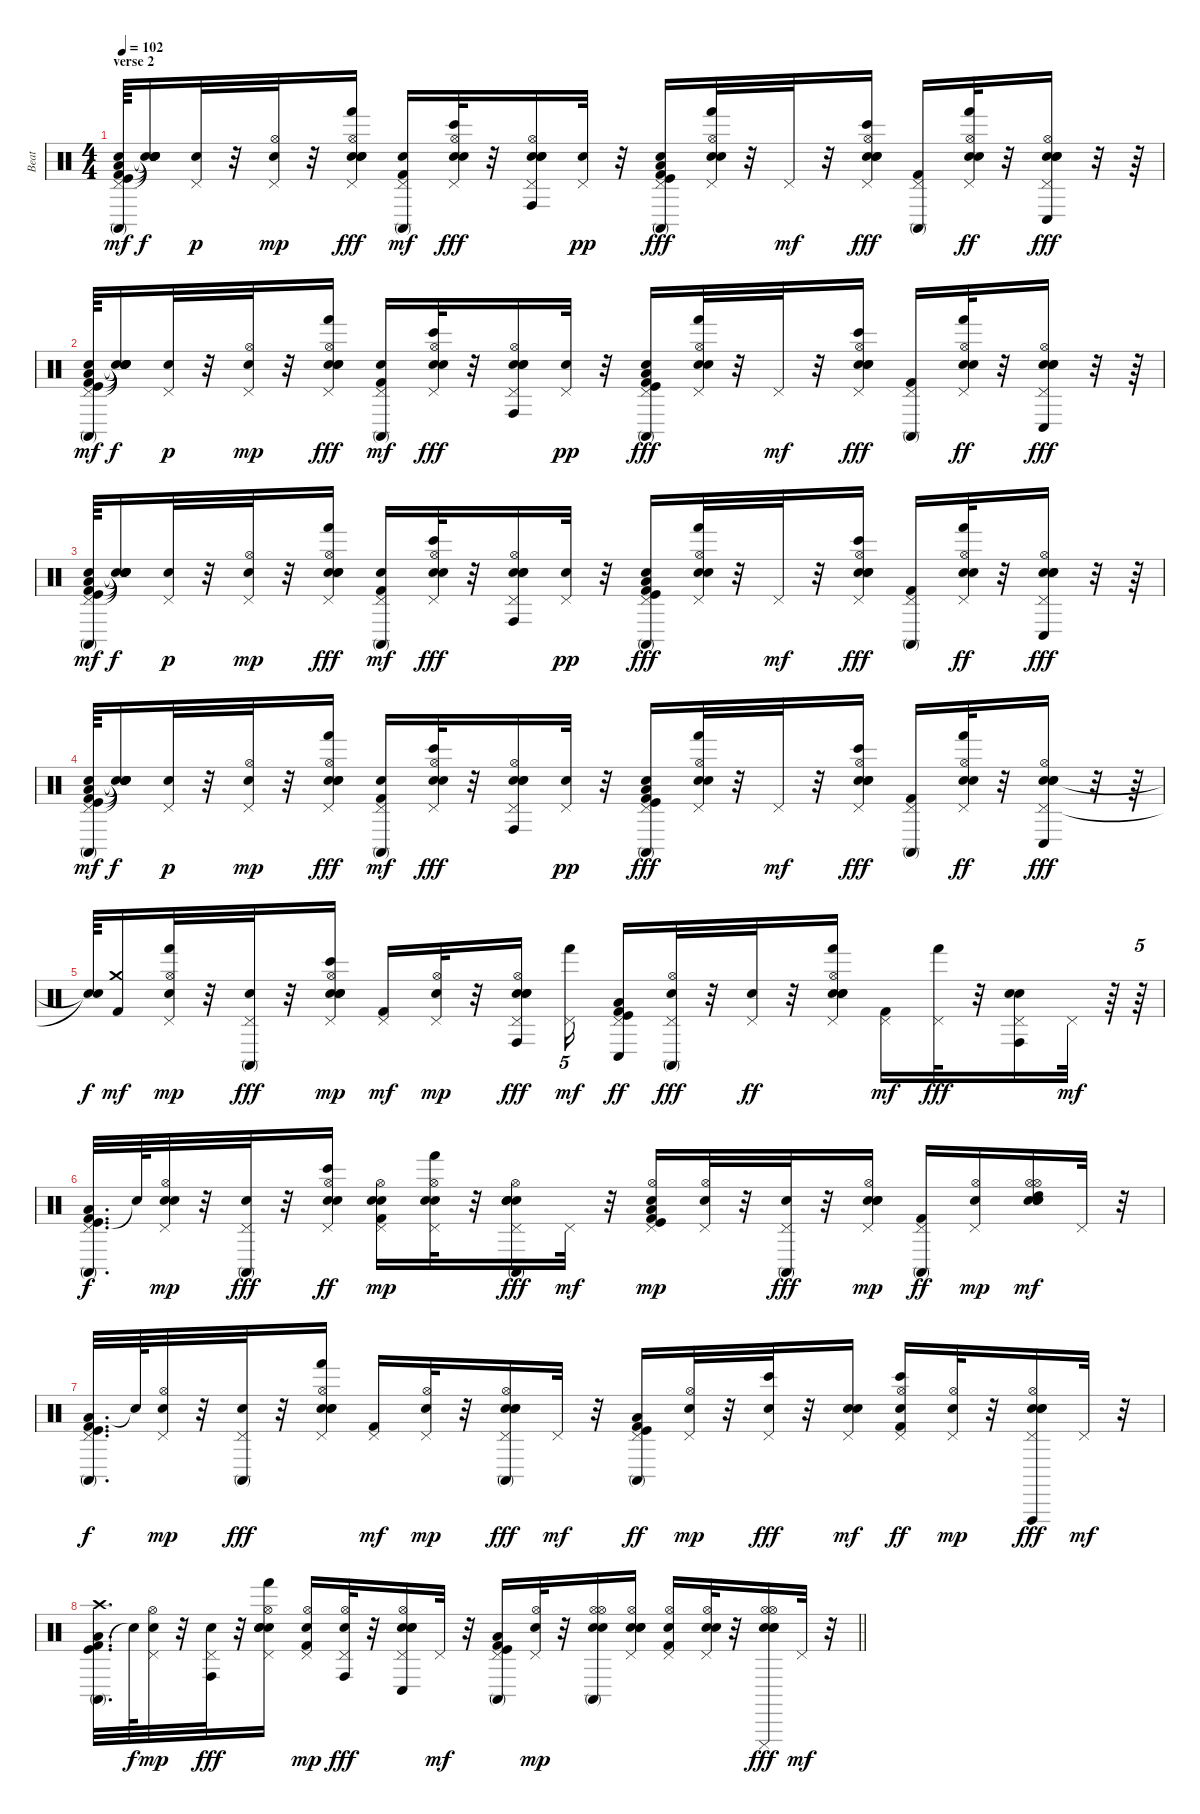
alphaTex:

\track ("Beat" "Beat") {instrument percussion}
\staff {score}
\articulation defaults
\ts (4 4)
\section ("" "verse 2")
\tempo 102
\clef neutral
\ks c
("Low Tom (hit)" "Kick (hit)" "Kick (hit) 2" "Pedal Hi-Hat (hit)" "Hand Clap (hit)" "Conga high (mute)").64{dy mf} ("Snare (hit)"{t} "Snare (hit)"{t} "Snare (hit)"{t} "Snare (hit)"{t} "Snare (hit)"{t}).16{dy f} ("Pedal Hi-Hat (hit)" "Hand Clap (hit)").32{dy p} r.32 ("Pedal Hi-Hat (hit)" "Hi-Hat (open)" "Metronome (bell)").32{dy mp} r.32 ("Electric Snare (hit)" "Pedal Hi-Hat (hit)" "Hand Clap (hit)" "Hi-Hat (open)" "Metronome (bell)" "Hand (hit)").16{dy fff} ("Kick (hit) 2" "Pedal Hi-Hat (hit)" "Hand Clap (hit)" "Conga high (mute)").16{dy mf} ("Pedal Hi-Hat (hit)" "Hand Clap (hit)" "Hi-Hat (open)" "Metronome (bell)" "Bongo High (hit)").32{dy fff} r.32 ("Electric Snare (hit)" "Pedal Hi-Hat (hit)" "Hand Clap (hit)" "Hi-Hat (open)" "Metronome (bell)" "Conga high (hit)").16 ("Pedal Hi-Hat (hit)" "Hand Clap (hit)").32{dy pp} r.32 ("Low Tom (hit)" "Kick (hit)" "Kick (hit) 2" "Pedal Hi-Hat (hit)" "Hand Clap (hit)" "Conga high (mute)").16{dy fff} ("Pedal Hi-Hat (hit)" "Hand Clap (hit)" "Hi-Hat (open)" "Metronome (bell)" "Hand (hit)").32 r.32 "Pedal Hi-Hat (hit)".32{dy mf} r.32 ("Electric Snare (hit)" "Pedal Hi-Hat (hit)" "Hand Clap (hit)" "Hi-Hat (open)" "Metronome (bell)" "Bongo High (hit)").16{dy fff} ("Kick (hit) 2" "Pedal Hi-Hat (hit)" "Conga high (mute)").16 ("Pedal Hi-Hat (hit)" "Hand Clap (hit)" "Hi-Hat (open)" "Metronome (bell)" "Hand (hit)").32{dy ff} r.32 ("Electric Snare (hit)" "Pedal Hi-Hat (hit)" "Hand Clap (hit)" "Hi-Hat (open)" "Metronome (bell)" "Conga low (hit)").16{dy fff} r.32 r.64 |
("Low Tom (hit)" "Kick (hit)" "Kick (hit) 2" "Pedal Hi-Hat (hit)" "Hand Clap (hit)" "Conga high (mute)").64{dy mf} ("Snare (hit)"{t} "Snare (hit)"{t} "Snare (hit)"{t} "Snare (hit)"{t} "Snare (hit)"{t}).16{dy f} ("Pedal Hi-Hat (hit)" "Hand Clap (hit)").32{dy p} r.32 ("Pedal Hi-Hat (hit)" "Hi-Hat (open)" "Metronome (bell)").32{dy mp} r.32 ("Electric Snare (hit)" "Pedal Hi-Hat (hit)" "Hand Clap (hit)" "Hi-Hat (open)" "Metronome (bell)" "Hand (hit)").16{dy fff} ("Kick (hit) 2" "Pedal Hi-Hat (hit)" "Hand Clap (hit)" "Conga high (mute)").16{dy mf} ("Pedal Hi-Hat (hit)" "Hand Clap (hit)" "Hi-Hat (open)" "Metronome (bell)" "Bongo High (hit)").32{dy fff} r.32 ("Electric Snare (hit)" "Pedal Hi-Hat (hit)" "Hand Clap (hit)" "Hi-Hat (open)" "Metronome (bell)" "Conga high (hit)").16 ("Pedal Hi-Hat (hit)" "Hand Clap (hit)").32{dy pp} r.32 ("Low Tom (hit)" "Kick (hit)" "Kick (hit) 2" "Pedal Hi-Hat (hit)" "Hand Clap (hit)" "Conga high (mute)").16{dy fff} ("Pedal Hi-Hat (hit)" "Hand Clap (hit)" "Hi-Hat (open)" "Metronome (bell)" "Hand (hit)").32 r.32 "Pedal Hi-Hat (hit)".32{dy mf} r.32 ("Electric Snare (hit)" "Pedal Hi-Hat (hit)" "Hand Clap (hit)" "Hi-Hat (open)" "Metronome (bell)" "Bongo High (hit)").16{dy fff} ("Kick (hit) 2" "Pedal Hi-Hat (hit)" "Conga high (mute)").16 ("Pedal Hi-Hat (hit)" "Hand Clap (hit)" "Hi-Hat (open)" "Metronome (bell)" "Hand (hit)").32{dy ff} r.32 ("Electric Snare (hit)" "Pedal Hi-Hat (hit)" "Hand Clap (hit)" "Hi-Hat (open)" "Metronome (bell)" "Conga low (hit)").16{dy fff} r.32 r.64 |
("Low Tom (hit)" "Kick (hit)" "Kick (hit) 2" "Pedal Hi-Hat (hit)" "Hand Clap (hit)" "Conga high (mute)").64{dy mf} ("Snare (hit)"{t} "Snare (hit)"{t} "Snare (hit)"{t} "Snare (hit)"{t} "Snare (hit)"{t}).16{dy f} ("Pedal Hi-Hat (hit)" "Hand Clap (hit)").32{dy p} r.32 ("Pedal Hi-Hat (hit)" "Hi-Hat (open)" "Metronome (bell)").32{dy mp} r.32 ("Electric Snare (hit)" "Pedal Hi-Hat (hit)" "Hand Clap (hit)" "Hi-Hat (open)" "Metronome (bell)" "Hand (hit)").16{dy fff} ("Kick (hit) 2" "Pedal Hi-Hat (hit)" "Hand Clap (hit)" "Conga high (mute)").16{dy mf} ("Pedal Hi-Hat (hit)" "Hand Clap (hit)" "Hi-Hat (open)" "Metronome (bell)" "Bongo High (hit)").32{dy fff} r.32 ("Electric Snare (hit)" "Pedal Hi-Hat (hit)" "Hand Clap (hit)" "Hi-Hat (open)" "Metronome (bell)" "Conga high (hit)").16 ("Pedal Hi-Hat (hit)" "Hand Clap (hit)").32{dy pp} r.32 ("Low Tom (hit)" "Kick (hit)" "Kick (hit) 2" "Pedal Hi-Hat (hit)" "Hand Clap (hit)" "Conga high (mute)").16{dy fff} ("Pedal Hi-Hat (hit)" "Hand Clap (hit)" "Hi-Hat (open)" "Metronome (bell)" "Hand (hit)").32 r.32 "Pedal Hi-Hat (hit)".32{dy mf} r.32 ("Electric Snare (hit)" "Pedal Hi-Hat (hit)" "Hand Clap (hit)" "Hi-Hat (open)" "Metronome (bell)" "Bongo High (hit)").16{dy fff} ("Kick (hit) 2" "Pedal Hi-Hat (hit)" "Conga high (mute)").16 ("Pedal Hi-Hat (hit)" "Hand Clap (hit)" "Hi-Hat (open)" "Metronome (bell)" "Hand (hit)").32{dy ff} r.32 ("Electric Snare (hit)" "Pedal Hi-Hat (hit)" "Hand Clap (hit)" "Hi-Hat (open)" "Metronome (bell)" "Conga low (hit)").16{dy fff} r.32 r.64 |
("Low Tom (hit)" "Kick (hit)" "Kick (hit) 2" "Pedal Hi-Hat (hit)" "Hand Clap (hit)" "Conga high (mute)").64{dy mf} ("Snare (hit)"{t} "Snare (hit)"{t} "Snare (hit)"{t} "Snare (hit)"{t} "Snare (hit)"{t}).16{dy f} ("Pedal Hi-Hat (hit)" "Hand Clap (hit)").32{dy p} r.32 ("Pedal Hi-Hat (hit)" "Hi-Hat (open)" "Metronome (bell)").32{dy mp} r.32 ("Electric Snare (hit)" "Pedal Hi-Hat (hit)" "Hand Clap (hit)" "Hi-Hat (open)" "Metronome (bell)" "Hand (hit)").16{dy fff} ("Kick (hit) 2" "Pedal Hi-Hat (hit)" "Hand Clap (hit)" "Conga high (mute)").16{dy mf} ("Pedal Hi-Hat (hit)" "Hand Clap (hit)" "Hi-Hat (open)" "Metronome (bell)" "Bongo High (hit)").32{dy fff} r.32 ("Electric Snare (hit)" "Pedal Hi-Hat (hit)" "Hand Clap (hit)" "Hi-Hat (open)" "Metronome (bell)" "Conga high (hit)").16 ("Pedal Hi-Hat (hit)" "Hand Clap (hit)").32{dy pp} r.32 ("Low Tom (hit)" "Kick (hit)" "Kick (hit) 2" "Pedal Hi-Hat (hit)" "Hand Clap (hit)" "Conga high (mute)").16{dy fff} ("Pedal Hi-Hat (hit)" "Hand Clap (hit)" "Hi-Hat (open)" "Metronome (bell)" "Hand (hit)").32 r.32 "Pedal Hi-Hat (hit)".32{dy mf} r.32 ("Electric Snare (hit)" "Pedal Hi-Hat (hit)" "Hand Clap (hit)" "Hi-Hat (open)" "Metronome (bell)" "Bongo High (hit)").16{dy fff} ("Kick (hit) 2" "Pedal Hi-Hat (hit)" "Conga high (mute)").16 ("Pedal Hi-Hat (hit)" "Hand Clap (hit)" "Hi-Hat (open)" "Metronome (bell)" "Hand (hit)").32{dy ff} r.32 ("Electric Snare (hit)" "Pedal Hi-Hat (hit)" "Hand Clap (hit)" "Hi-Hat (open)" "Metronome (bell)" "Conga low (hit)").16{dy fff} r.32 r.64 |
("Snare (hit)"{t} "Snare (hit)"{t}).64{dy f} ("Kick (hit) 2" "Crash medium (hit)").16{dy mf} ("Pedal Hi-Hat (hit)" "Hi-Hat (open)" "Metronome (bell)" "Hand (hit)").32{dy mp} r.32 ("Pedal Hi-Hat (hit)" "Hand Clap (hit)" "Conga high (mute)").32{dy fff} r.32 ("Electric Snare (hit)" "Pedal Hi-Hat (hit)" "Hand Clap (hit)" "Hi-Hat (open)" "Metronome (bell)" "Bongo High (hit)").16{dy mp} ("Kick (hit) 2" "Pedal Hi-Hat (hit)").16{dy mf} ("Pedal Hi-Hat (hit)" "Hi-Hat (open)" "Metronome (bell)").32{dy mp} r.32 ("Electric Snare (hit)" "Pedal Hi-Hat (hit)" "Hand Clap (hit)" "Hi-Hat (open)" "Metronome (bell)" "Conga high (hit)").16{dy fff} ("Pedal Hi-Hat (hit)" "Hand (hit)").16{tu (5 4) dy mf} ("Kick (hit)" "Low Tom (hit)" "Kick (hit) 2" "Pedal Hi-Hat (hit)" "Conga low (hit)").16{dy ff} ("Pedal Hi-Hat (hit)" "Hi-Hat (open)" "Metronome (bell)" "Conga high (mute)").32{dy fff} r.32 ("Pedal Hi-Hat (hit)" "Hand Clap (hit)").32{dy ff} r.32 ("Electric Snare (hit)" "Pedal Hi-Hat (hit)" "Hand Clap (hit)" "Hi-Hat (open)" "Metronome (bell)" "Hand (hit)").16 ("Kick (hit) 2" "Pedal Hi-Hat (hit)").16{dy mf} ("Pedal Hi-Hat (hit)" "Hand (hit)").32{dy fff} r.32 ("Electric Snare (hit)" "Pedal Hi-Hat (hit)" "Hand Clap (hit)" "Conga high (hit)").16 "Pedal Hi-Hat (hit)".32{dy mf} r.64 r.64{tu (5 4)} |
("Kick (hit)" "Low Tom (hit)" "Kick (hit) 2" "Pedal Hi-Hat (hit)" "Conga high (mute)").32{d dy f} "Snare (hit)"{t}.64 ("Pedal Hi-Hat (hit)" "Hand Clap (hit)" "Hi-Hat (open)" "Metronome (bell)").32{dy mp} r.32 ("Pedal Hi-Hat (hit)" "Hand Clap (hit)" "Conga high (mute)").32{dy fff} r.32 ("Electric Snare (hit)" "Pedal Hi-Hat (hit)" "Hi-Hat (open)" "Metronome (bell)" "Bongo High (hit)").16{dy ff} ("Kick (hit) 2" "Pedal Hi-Hat (hit)" "Hand Clap (hit)" "Hi-Hat (open)" "Metronome (bell)").16{dy mp} ("Pedal Hi-Hat (hit)" "Hand Clap (hit)" "Hi-Hat (open)" "Metronome (bell)" "Hand (hit)").32 r.32 ("Electric Snare (hit)" "Pedal Hi-Hat (hit)" "Hand Clap (hit)" "Hi-Hat (open)" "Metronome (bell)" "Conga high (mute)").16{dy fff} "Pedal Hi-Hat (hit)".32{dy mf} r.32 ("Low Tom (hit)" "Kick (hit)" "Kick (hit) 2" "Pedal Hi-Hat (hit)" "Hi-Hat (open)" "Metronome (bell)").16{dy mp} ("Pedal Hi-Hat (hit)" "Hi-Hat (open)" "Metronome (bell)").32 r.32 ("Pedal Hi-Hat (hit)" "Hand Clap (hit)" "Conga high (mute)").32{dy fff} r.32 ("Electric Snare (hit)" "Pedal Hi-Hat (hit)" "Hand Clap (hit)" "Hi-Hat (open)" "Metronome (bell)").16{dy mp} ("Kick (hit) 2" "Pedal Hi-Hat (hit)" "Conga high (mute)").16{dy ff} ("Pedal Hi-Hat (hit)" "Hi-Hat (open)" "Metronome (bell)").16{dy mp} ("Electric Snare (hit)" "Hi-Hat (open)" "Hand Clap (hit)" "Hi-Hat (open)" "Metronome (bell)" "High Tom (hit)").16{dy mf} "Pedal Hi-Hat (hit)".32 r.32 |
("Low Tom (hit)" "Kick (hit)" "Kick (hit) 2" "Pedal Hi-Hat (hit)" "Conga high (mute)").32{d dy f} "Snare (hit)"{t}.64 ("Pedal Hi-Hat (hit)" "Hi-Hat (open)" "Metronome (bell)").32{dy mp} r.32 ("Pedal Hi-Hat (hit)" "Hand Clap (hit)" "Conga high (mute)").32{dy fff} r.32 ("Electric Snare (hit)" "Pedal Hi-Hat (hit)" "Hand Clap (hit)" "Hi-Hat (open)" "Metronome (bell)" "Hand (hit)").16 ("Kick (hit) 2" "Pedal Hi-Hat (hit)").16{dy mf} ("Pedal Hi-Hat (hit)" "Hi-Hat (open)" "Metronome (bell)").32{dy mp} r.32 ("Electric Snare (hit)" "Pedal Hi-Hat (hit)" "Hand Clap (hit)" "Hi-Hat (open)" "Metronome (bell)" "Conga high (mute)").16{dy fff} "Pedal Hi-Hat (hit)".32{dy mf} r.32 ("Low Tom (hit)" "Kick (hit)" "Kick (hit) 2" "Pedal Hi-Hat (hit)" "Conga high (mute)").16{dy ff} ("Pedal Hi-Hat (hit)" "Hi-Hat (open)" "Metronome (bell)").32{dy mp} r.32 ("Pedal Hi-Hat (hit)" "Hand Clap (hit)" "Bongo High (hit)").32{dy fff} r.32 ("Electric Snare (hit)" "Pedal Hi-Hat (hit)" "Hand Clap (hit)").16{dy mf} ("Kick (hit) 2" "Pedal Hi-Hat (hit)" "Hi-Hat (open)" "Metronome (bell)" "Bongo High (hit)").16{dy ff} ("Pedal Hi-Hat (hit)" "Hi-Hat (open)" "Metronome (bell)").32{dy mp} r.32 ("Electric Snare (hit)" "Pedal Hi-Hat (hit)" "Hand Clap (hit)" "Hi-Hat (open)" "Metronome (bell)" "Vibraslap (hit)").16{dy fff} "Pedal Hi-Hat (hit)".32{dy mf} r.32 |
\barLineRight lightlight
("Kick (hit)" "Low Tom (hit)" "Kick (hit) 2" "Crash high (hit)" "Conga high (mute)").32{d} "Snare (hit)"{t}.64{dy f} ("Pedal Hi-Hat (hit)" "Hi-Hat (open)" "Metronome (bell)").32{dy mp} r.32 ("Pedal Hi-Hat (hit)" "Hand Clap (hit)" "Conga high (hit)").32{dy fff} r.32 ("Electric Snare (hit)" "Pedal Hi-Hat (hit)" "Hand Clap (hit)" "Hi-Hat (open)" "Metronome (bell)" "Hand (hit)").16 ("Kick (hit) 2" "Pedal Hi-Hat (hit)" "Hi-Hat (open)" "Metronome (bell)").16{dy mp} ("Pedal Hi-Hat (hit)" "Hi-Hat (open)" "Metronome (bell)" "Conga high (hit)").32{dy fff} r.32 ("Electric Snare (hit)" "Pedal Hi-Hat (hit)" "Hand Clap (hit)" "Hi-Hat (open)" "Metronome (bell)" "Conga low (hit)").16 "Pedal Hi-Hat (hit)".32{dy mf} r.32 ("Low Tom (hit)" "Kick (hit)" "Kick (hit) 2" "Pedal Hi-Hat (hit)" "Conga high (mute)").16 ("Pedal Hi-Hat (hit)" "Hi-Hat (open)" "Metronome (bell)").32{dy mp} r.32 ("Hi-Hat (open)" "Hand Clap (hit)" "Hi-Hat (open)" "Metronome (bell)" "Conga high (mute)").16 ("Electric Snare (hit)" "Pedal Hi-Hat (hit)" "Hand Clap (hit)" "Hi-Hat (open)" "Metronome (bell)").16 ("Kick (hit) 2" "Pedal Hi-Hat (hit)" "Hi-Hat (open)" "Metronome (bell)").16 ("Pedal Hi-Hat (hit)" "Hand Clap (hit)" "Hi-Hat (open)" "Metronome (bell)").32 r.32 ("Electric Snare (hit)" "Hi-Hat (open)" "Hand Clap (hit)" "Hi-Hat (open)" "Metronome (bell)" "Cuica (mute)").16{dy fff} "Pedal Hi-Hat (hit)".32{dy mf} r.32
